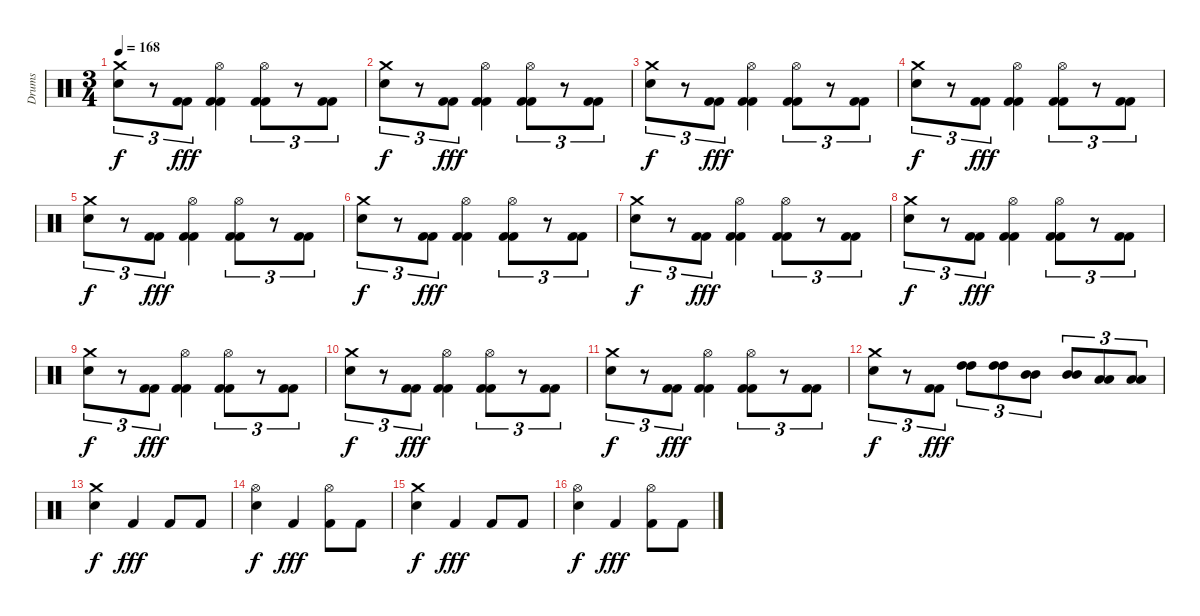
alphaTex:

\track ("Drums" "Drums") {instrument percussion}
\staff {score}
\articulation defaults
\ts (3 4)
\tempo 168
\clef neutral
\ks c
("Electric Snare (hit)" "Crash medium (hit)").8{tu (3 2) dy f} r.8{tu (3 2)} ("Kick (hit) 2" "Kick (hit) 2").8{tu (3 2) dy fff} ("Hi-Hat (open)" "Kick (hit) 2" "Kick (hit) 2").4 ("Hi-Hat (open)" "Kick (hit) 2" "Kick (hit) 2").8{tu (3 2)} r.8{tu (3 2)} ("Kick (hit) 2" "Kick (hit) 2").8{tu (3 2)} |
("Electric Snare (hit)" "Crash medium (hit)").8{tu (3 2) dy f} r.8{tu (3 2)} ("Kick (hit) 2" "Kick (hit) 2").8{tu (3 2) dy fff} ("Hi-Hat (open)" "Kick (hit) 2" "Kick (hit) 2").4 ("Hi-Hat (open)" "Kick (hit) 2" "Kick (hit) 2").8{tu (3 2)} r.8{tu (3 2)} ("Kick (hit) 2" "Kick (hit) 2").8{tu (3 2)} |
("Electric Snare (hit)" "Crash medium (hit)").8{tu (3 2) dy f} r.8{tu (3 2)} ("Kick (hit) 2" "Kick (hit) 2").8{tu (3 2) dy fff} ("Hi-Hat (open)" "Kick (hit) 2" "Kick (hit) 2").4 ("Hi-Hat (open)" "Kick (hit) 2" "Kick (hit) 2").8{tu (3 2)} r.8{tu (3 2)} ("Kick (hit) 2" "Kick (hit) 2").8{tu (3 2)} |
("Electric Snare (hit)" "Crash medium (hit)").8{tu (3 2) dy f} r.8{tu (3 2)} ("Kick (hit) 2" "Kick (hit) 2").8{tu (3 2) dy fff} ("Hi-Hat (open)" "Kick (hit) 2" "Kick (hit) 2").4 ("Hi-Hat (open)" "Kick (hit) 2" "Kick (hit) 2").8{tu (3 2)} r.8{tu (3 2)} ("Kick (hit) 2" "Kick (hit) 2").8{tu (3 2)} |
("Electric Snare (hit)" "Crash medium (hit)").8{tu (3 2) dy f} r.8{tu (3 2)} ("Kick (hit) 2" "Kick (hit) 2").8{tu (3 2) dy fff} ("Hi-Hat (open)" "Kick (hit) 2" "Kick (hit) 2").4 ("Hi-Hat (open)" "Kick (hit) 2" "Kick (hit) 2").8{tu (3 2)} r.8{tu (3 2)} ("Kick (hit) 2" "Kick (hit) 2").8{tu (3 2)} |
("Electric Snare (hit)" "Crash medium (hit)").8{tu (3 2) dy f} r.8{tu (3 2)} ("Kick (hit) 2" "Kick (hit) 2").8{tu (3 2) dy fff} ("Hi-Hat (open)" "Kick (hit) 2" "Kick (hit) 2").4 ("Hi-Hat (open)" "Kick (hit) 2" "Kick (hit) 2").8{tu (3 2)} r.8{tu (3 2)} ("Kick (hit) 2" "Kick (hit) 2").8{tu (3 2)} |
("Electric Snare (hit)" "Crash medium (hit)").8{tu (3 2) dy f} r.8{tu (3 2)} ("Kick (hit) 2" "Kick (hit) 2").8{tu (3 2) dy fff} ("Hi-Hat (open)" "Kick (hit) 2" "Kick (hit) 2").4 ("Hi-Hat (open)" "Kick (hit) 2" "Kick (hit) 2").8{tu (3 2)} r.8{tu (3 2)} ("Kick (hit) 2" "Kick (hit) 2").8{tu (3 2)} |
("Electric Snare (hit)" "Crash medium (hit)").8{tu (3 2) dy f} r.8{tu (3 2)} ("Kick (hit) 2" "Kick (hit) 2").8{tu (3 2) dy fff} ("Hi-Hat (open)" "Kick (hit) 2" "Kick (hit) 2").4 ("Hi-Hat (open)" "Kick (hit) 2" "Kick (hit) 2").8{tu (3 2)} r.8{tu (3 2)} ("Kick (hit) 2" "Kick (hit) 2").8{tu (3 2)} |
("Electric Snare (hit)" "Crash medium (hit)").8{tu (3 2) dy f} r.8{tu (3 2)} ("Kick (hit) 2" "Kick (hit) 2").8{tu (3 2) dy fff} ("Hi-Hat (open)" "Kick (hit) 2" "Kick (hit) 2").4 ("Hi-Hat (open)" "Kick (hit) 2" "Kick (hit) 2").8{tu (3 2)} r.8{tu (3 2)} ("Kick (hit) 2" "Kick (hit) 2").8{tu (3 2)} |
("Electric Snare (hit)" "Crash medium (hit)").8{tu (3 2) dy f} r.8{tu (3 2)} ("Kick (hit) 2" "Kick (hit) 2").8{tu (3 2) dy fff} ("Hi-Hat (open)" "Kick (hit) 2" "Kick (hit) 2").4 ("Hi-Hat (open)" "Kick (hit) 2" "Kick (hit) 2").8{tu (3 2)} r.8{tu (3 2)} ("Kick (hit) 2" "Kick (hit) 2").8{tu (3 2)} |
("Electric Snare (hit)" "Crash medium (hit)").8{tu (3 2) dy f} r.8{tu (3 2)} ("Kick (hit) 2" "Kick (hit) 2").8{tu (3 2) dy fff} ("Hi-Hat (open)" "Kick (hit) 2" "Kick (hit) 2").4 ("Hi-Hat (open)" "Kick (hit) 2" "Kick (hit) 2").8{tu (3 2)} r.8{tu (3 2)} ("Kick (hit) 2" "Kick (hit) 2").8{tu (3 2)} |
("Electric Snare (hit)" "Crash medium (hit)").8{tu (3 2) dy f} r.8{tu (3 2)} ("Kick (hit) 2" "Kick (hit) 2").8{tu (3 2) dy fff} ("High Tom (hit)" "High Tom (hit)").8{tu (3 2)} ("High Tom (hit)" "High Tom (hit)").8{tu (3 2)} ("Mid Tom (hit)" "Mid Tom (hit)").8{tu (3 2)} ("Mid Tom (hit)" "Mid Tom (hit)").8{tu (3 2)} ("Low Tom (hit)" "Low Tom (hit)").8{tu (3 2)} ("Low Tom (hit)" "Low Tom (hit)").8{tu (3 2)} |
("Crash medium (hit)" "Electric Snare (hit)").4{dy f} "Kick (hit) 2".4{dy fff} "Kick (hit) 2".8 "Kick (hit) 2".8 |
("Hi-Hat (open)" "Electric Snare (hit)").4{dy f} "Kick (hit) 2".4{dy fff} ("Hi-Hat (open)" "Kick (hit) 2").8 "Kick (hit) 2".8 |
("Crash medium (hit)" "Electric Snare (hit)").4{dy f} "Kick (hit) 2".4{dy fff} "Kick (hit) 2".8 "Kick (hit) 2".8 |
("Hi-Hat (open)" "Electric Snare (hit)").4{dy f} "Kick (hit) 2".4{dy fff} ("Hi-Hat (open)" "Kick (hit) 2").8 "Kick (hit) 2".8
